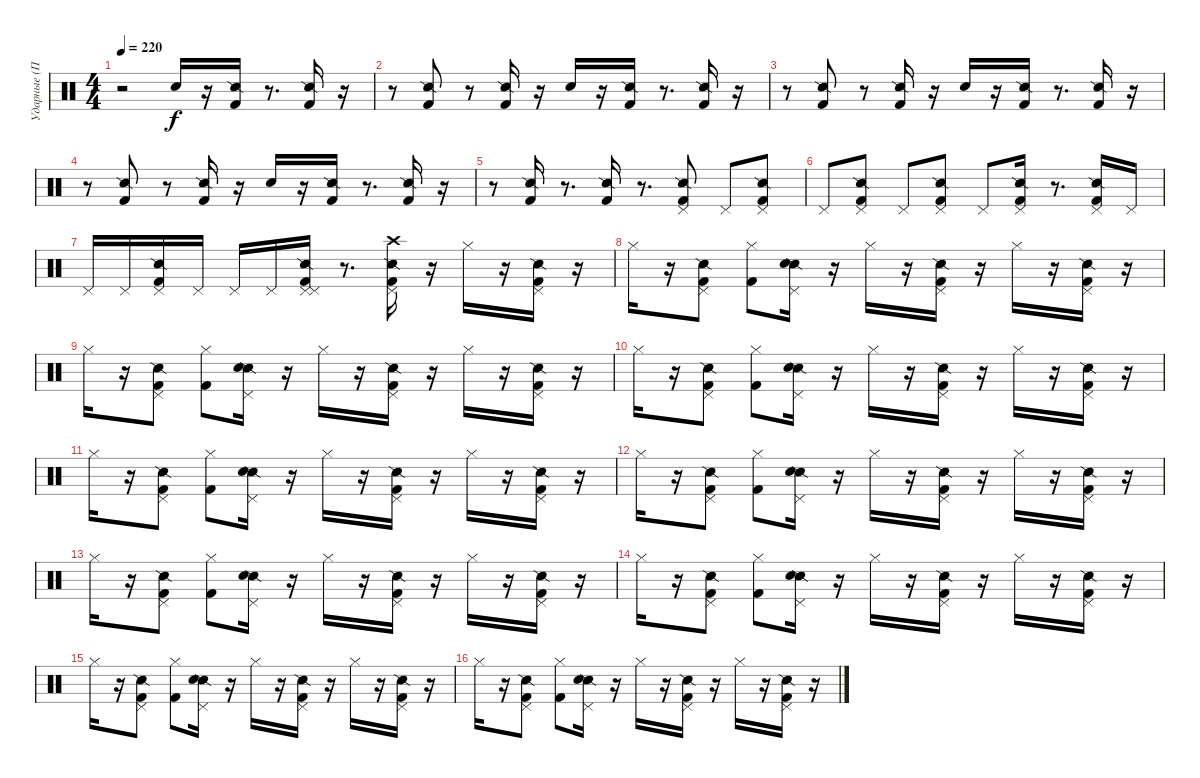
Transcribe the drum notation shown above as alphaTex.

\track ("Ударные (Потапкин)" "Ударные (П") {instrument percussion}
\staff {score}
\articulation defaults
\ts (4 4)
\tempo 220
\clef neutral
\ks c
r.2{dy f} "Snare (hit) 2".16 r.16 ("Snare (side stick) 2" "Kick (hit) 2").16 r.8{d} ("Snare (side stick) 2" "Kick (hit) 2").16 r.16 |
r.8 ("Snare (side stick) 2" "Kick (hit) 2").8 r.8 ("Kick (hit) 2" "Snare (side stick) 2").16 r.16 "Snare (hit) 2".16 r.16 ("Snare (side stick) 2" "Kick (hit) 2").16 r.8{d} ("Snare (side stick) 2" "Kick (hit) 2").16 r.16 |
r.8 ("Snare (side stick) 2" "Kick (hit) 2").8 r.8 ("Kick (hit) 2" "Snare (side stick) 2").16 r.16 "Snare (hit) 2".16 r.16 ("Snare (side stick) 2" "Kick (hit) 2").16 r.8{d} ("Snare (side stick) 2" "Kick (hit) 2").16 r.16 |
r.8 ("Snare (side stick) 2" "Kick (hit) 2").8 r.8 ("Kick (hit) 2" "Snare (side stick) 2").16 r.16 "Snare (hit) 2".16 r.16 ("Snare (side stick) 2" "Kick (hit) 2").16 r.8{d} ("Snare (side stick) 2" "Kick (hit) 2").16 r.16 |
r.8 ("Snare (side stick) 2" "Kick (hit) 2").16 r.8{d} ("Kick (hit) 2" "Snare (side stick) 2").16 r.8{d} ("Pedal Hi-Hat (hit)" "Snare (side stick) 2" "Kick (hit) 2").8 "Pedal Hi-Hat (hit)".8 ("Pedal Hi-Hat (hit)" "Snare (side stick) 2" "Kick (hit) 2").8 |
"Pedal Hi-Hat (hit)".8 ("Pedal Hi-Hat (hit)" "Snare (side stick) 2" "Kick (hit) 2").8 "Pedal Hi-Hat (hit)".8 ("Pedal Hi-Hat (hit)" "Kick (hit) 2" "Snare (side stick) 2").8 "Pedal Hi-Hat (hit)".8 ("Pedal Hi-Hat (hit)" "Snare (side stick) 2" "Kick (hit) 2").16 r.8{d} ("Pedal Hi-Hat (hit)" "Snare (side stick) 2" "Kick (hit) 2").16 "Pedal Hi-Hat (hit)".16 |
"Pedal Hi-Hat (hit)".16 "Pedal Hi-Hat (hit)".16 ("Pedal Hi-Hat (hit)" "Snare (side stick) 2" "Kick (hit) 2").16 "Pedal Hi-Hat (hit)".16 "Pedal Hi-Hat (hit)".16 "Pedal Hi-Hat (hit)".16 ("Pedal Hi-Hat (hit)" "Pedal Hi-Hat (hit)" "Kick (hit) 2" "Snare (side stick) 2").16 r.8{d} ("Crash high (hit)" "Snare (side stick) 2" "Pedal Hi-Hat (hit)" "Kick (hit) 2").16 r.16 "Hi-Hat (closed)".16 r.16 ("Snare (side stick) 2" "Pedal Hi-Hat (hit)" "Kick (hit) 2").16 r.16 |
"Hi-Hat (closed)".16 r.16 ("Snare (side stick) 2" "Kick (hit) 2" "Pedal Hi-Hat (hit)").8 ("Kick (hit) 2" "Hi-Hat (closed)").8 ("Snare (side stick) 2" "Pedal Hi-Hat (hit)" "Snare (hit) 2").16 r.16 "Hi-Hat (closed)".16 r.16 ("Snare (side stick) 2" "Pedal Hi-Hat (hit)" "Kick (hit) 2").16 r.16 "Hi-Hat (closed)".16 r.16 ("Snare (side stick) 2" "Pedal Hi-Hat (hit)" "Kick (hit) 2").16 r.16 |
"Hi-Hat (closed)".16 r.16 ("Snare (side stick) 2" "Kick (hit) 2" "Pedal Hi-Hat (hit)").8 ("Kick (hit) 2" "Hi-Hat (closed)").8 ("Snare (side stick) 2" "Pedal Hi-Hat (hit)" "Snare (hit) 2").16 r.16 "Hi-Hat (closed)".16 r.16 ("Snare (side stick) 2" "Pedal Hi-Hat (hit)" "Kick (hit) 2").16 r.16 "Hi-Hat (closed)".16 r.16 ("Snare (side stick) 2" "Pedal Hi-Hat (hit)" "Kick (hit) 2").16 r.16 |
"Hi-Hat (closed)".16 r.16 ("Snare (side stick) 2" "Kick (hit) 2" "Pedal Hi-Hat (hit)").8 ("Kick (hit) 2" "Hi-Hat (closed)").8 ("Snare (side stick) 2" "Pedal Hi-Hat (hit)" "Snare (hit) 2").16 r.16 "Hi-Hat (closed)".16 r.16 ("Snare (side stick) 2" "Pedal Hi-Hat (hit)" "Kick (hit) 2").16 r.16 "Hi-Hat (closed)".16 r.16 ("Snare (side stick) 2" "Pedal Hi-Hat (hit)" "Kick (hit) 2").16 r.16 |
"Hi-Hat (closed)".16 r.16 ("Snare (side stick) 2" "Kick (hit) 2" "Pedal Hi-Hat (hit)").8 ("Kick (hit) 2" "Hi-Hat (closed)").8 ("Snare (side stick) 2" "Pedal Hi-Hat (hit)" "Snare (hit) 2").16 r.16 "Hi-Hat (closed)".16 r.16 ("Snare (side stick) 2" "Pedal Hi-Hat (hit)" "Kick (hit) 2").16 r.16 "Hi-Hat (closed)".16 r.16 ("Snare (side stick) 2" "Pedal Hi-Hat (hit)" "Kick (hit) 2").16 r.16 |
"Hi-Hat (closed)".16 r.16 ("Snare (side stick) 2" "Kick (hit) 2" "Pedal Hi-Hat (hit)").8 ("Kick (hit) 2" "Hi-Hat (closed)").8 ("Snare (side stick) 2" "Pedal Hi-Hat (hit)" "Snare (hit) 2").16 r.16 "Hi-Hat (closed)".16 r.16 ("Snare (side stick) 2" "Pedal Hi-Hat (hit)" "Kick (hit) 2").16 r.16 "Hi-Hat (closed)".16 r.16 ("Snare (side stick) 2" "Pedal Hi-Hat (hit)" "Kick (hit) 2").16 r.16 |
"Hi-Hat (closed)".16 r.16 ("Snare (side stick) 2" "Kick (hit) 2" "Pedal Hi-Hat (hit)").8 ("Kick (hit) 2" "Hi-Hat (closed)").8 ("Snare (side stick) 2" "Pedal Hi-Hat (hit)" "Snare (hit) 2").16 r.16 "Hi-Hat (closed)".16 r.16 ("Snare (side stick) 2" "Pedal Hi-Hat (hit)" "Kick (hit) 2").16 r.16 "Hi-Hat (closed)".16 r.16 ("Snare (side stick) 2" "Pedal Hi-Hat (hit)" "Kick (hit) 2").16 r.16 |
"Hi-Hat (closed)".16 r.16 ("Snare (side stick) 2" "Kick (hit) 2" "Pedal Hi-Hat (hit)").8 ("Kick (hit) 2" "Hi-Hat (closed)").8 ("Snare (side stick) 2" "Pedal Hi-Hat (hit)" "Snare (hit) 2").16 r.16 "Hi-Hat (closed)".16 r.16 ("Snare (side stick) 2" "Pedal Hi-Hat (hit)" "Kick (hit) 2").16 r.16 "Hi-Hat (closed)".16 r.16 ("Snare (side stick) 2" "Pedal Hi-Hat (hit)" "Kick (hit) 2").16 r.16 |
"Hi-Hat (closed)".16 r.16 ("Snare (side stick) 2" "Kick (hit) 2" "Pedal Hi-Hat (hit)").8 ("Kick (hit) 2" "Hi-Hat (closed)").8 ("Snare (side stick) 2" "Pedal Hi-Hat (hit)" "Snare (hit) 2").16 r.16 "Hi-Hat (closed)".16 r.16 ("Snare (side stick) 2" "Pedal Hi-Hat (hit)" "Kick (hit) 2").16 r.16 "Hi-Hat (closed)".16 r.16 ("Snare (side stick) 2" "Pedal Hi-Hat (hit)" "Kick (hit) 2").16 r.16 |
"Hi-Hat (closed)".16 r.16 ("Snare (side stick) 2" "Kick (hit) 2" "Pedal Hi-Hat (hit)").8 ("Kick (hit) 2" "Hi-Hat (closed)").8 ("Snare (side stick) 2" "Pedal Hi-Hat (hit)" "Snare (hit) 2").16 r.16 "Hi-Hat (closed)".16 r.16 ("Snare (side stick) 2" "Pedal Hi-Hat (hit)" "Kick (hit) 2").16 r.16 "Hi-Hat (closed)".16 r.16 ("Snare (side stick) 2" "Pedal Hi-Hat (hit)" "Kick (hit) 2").16 r.16
